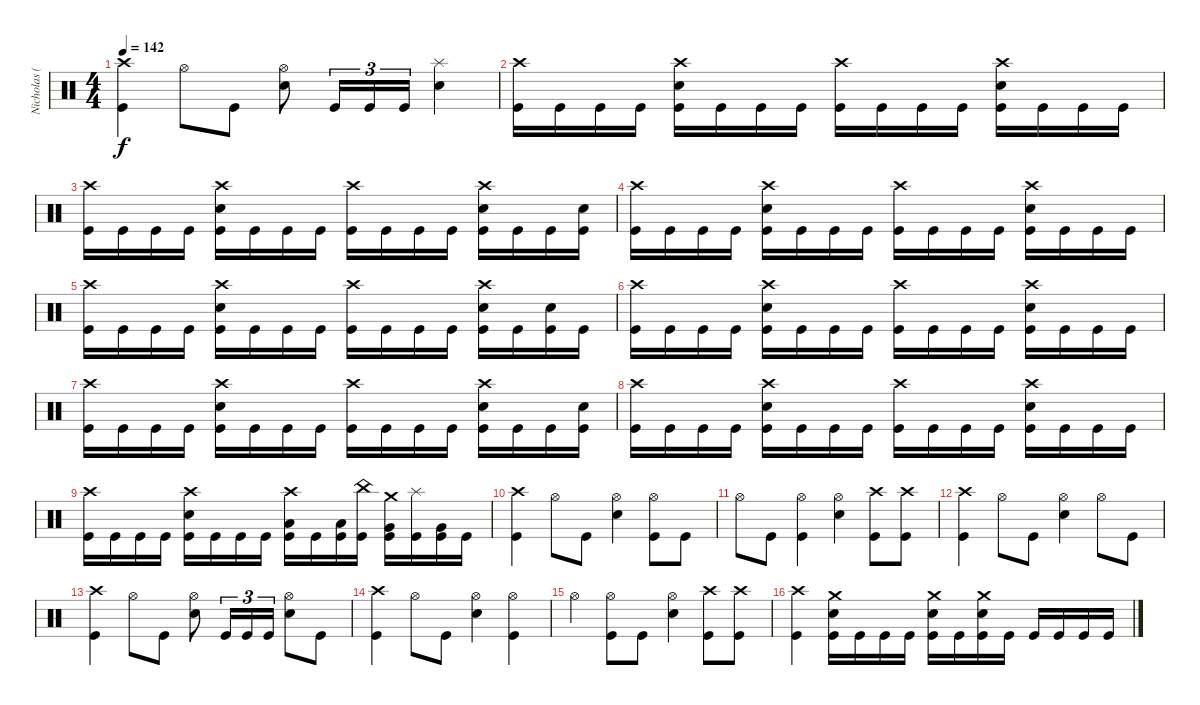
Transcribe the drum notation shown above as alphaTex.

\track ("Nicholas (Drums)" "Nicholas (") {instrument percussion}
\staff {score}
\articulation defaults
\ts (4 4)
\tempo 142
\clef neutral
\ks c
("Crash high (hit)" "Kick (hit)").4{dy f} "Hi-Hat (open)".8 "Kick (hit)".8 ("Hi-Hat (open)" "Electric Snare (hit)").8 "Kick (hit)".16{tu (3 2)} "Kick (hit)".16{tu (3 2)} "Kick (hit)".16{tu (3 2)} ("Splash (hit)" "Electric Snare (hit)").4 |
("Crash high (hit)" "Kick (hit)").16 "Kick (hit)".16 "Kick (hit)".16 "Kick (hit)".16 ("Crash high (hit)" "Electric Snare (hit)" "Kick (hit)").16 "Kick (hit)".16 "Kick (hit)".16 "Kick (hit)".16 ("Crash high (hit)" "Kick (hit)").16 "Kick (hit)".16 "Kick (hit)".16 "Kick (hit)".16 ("Crash high (hit)" "Electric Snare (hit)" "Kick (hit)").16 "Kick (hit)".16 "Kick (hit)".16 "Kick (hit)".16 |
("Crash high (hit)" "Kick (hit)").16 "Kick (hit)".16 "Kick (hit)".16 "Kick (hit)".16 ("Crash high (hit)" "Electric Snare (hit)" "Kick (hit)").16 "Kick (hit)".16 "Kick (hit)".16 "Kick (hit)".16 ("Crash high (hit)" "Kick (hit)").16 "Kick (hit)".16 "Kick (hit)".16 "Kick (hit)".16 ("Crash high (hit)" "Electric Snare (hit)" "Kick (hit)").16 "Kick (hit)".16 "Kick (hit)".16 ("Electric Snare (hit)" "Kick (hit)").16 |
("Crash high (hit)" "Kick (hit)").16 "Kick (hit)".16 "Kick (hit)".16 "Kick (hit)".16 ("Crash high (hit)" "Electric Snare (hit)" "Kick (hit)").16 "Kick (hit)".16 "Kick (hit)".16 "Kick (hit)".16 ("Crash high (hit)" "Kick (hit)").16 "Kick (hit)".16 "Kick (hit)".16 "Kick (hit)".16 ("Crash high (hit)" "Electric Snare (hit)" "Kick (hit)").16 "Kick (hit)".16 "Kick (hit)".16 "Kick (hit)".16 |
("Crash high (hit)" "Kick (hit)").16 "Kick (hit)".16 "Kick (hit)".16 "Kick (hit)".16 ("Crash high (hit)" "Electric Snare (hit)" "Kick (hit)").16 "Kick (hit)".16 "Kick (hit)".16 "Kick (hit)".16 ("Crash high (hit)" "Kick (hit)").16 "Kick (hit)".16 "Kick (hit)".16 "Kick (hit)".16 ("Crash high (hit)" "Electric Snare (hit)" "Kick (hit)").16 "Kick (hit)".16 ("Electric Snare (hit)" "Kick (hit)").16 "Kick (hit)".16 |
("Crash high (hit)" "Kick (hit)").16 "Kick (hit)".16 "Kick (hit)".16 "Kick (hit)".16 ("Crash high (hit)" "Electric Snare (hit)" "Kick (hit)").16 "Kick (hit)".16 "Kick (hit)".16 "Kick (hit)".16 ("Crash high (hit)" "Kick (hit)").16 "Kick (hit)".16 "Kick (hit)".16 "Kick (hit)".16 ("Crash high (hit)" "Electric Snare (hit)" "Kick (hit)").16 "Kick (hit)".16 "Kick (hit)".16 "Kick (hit)".16 |
("Crash high (hit)" "Kick (hit)").16 "Kick (hit)".16 "Kick (hit)".16 "Kick (hit)".16 ("Crash high (hit)" "Electric Snare (hit)" "Kick (hit)").16 "Kick (hit)".16 "Kick (hit)".16 "Kick (hit)".16 ("Crash high (hit)" "Kick (hit)").16 "Kick (hit)".16 "Kick (hit)".16 "Kick (hit)".16 ("Crash high (hit)" "Electric Snare (hit)" "Kick (hit)").16 "Kick (hit)".16 "Kick (hit)".16 ("Electric Snare (hit)" "Kick (hit)").16 |
("Crash high (hit)" "Kick (hit)").16 "Kick (hit)".16 "Kick (hit)".16 "Kick (hit)".16 ("Crash high (hit)" "Electric Snare (hit)" "Kick (hit)").16 "Kick (hit)".16 "Kick (hit)".16 "Kick (hit)".16 ("Crash high (hit)" "Kick (hit)").16 "Kick (hit)".16 "Kick (hit)".16 "Kick (hit)".16 ("Crash high (hit)" "Electric Snare (hit)" "Kick (hit)").16 "Kick (hit)".16 "Kick (hit)".16 "Kick (hit)".16 |
("Crash high (hit)" "Kick (hit)").16 "Kick (hit)".16 "Kick (hit)".16 "Kick (hit)".16 ("Crash high (hit)" "Electric Snare (hit)" "Kick (hit)").16 "Kick (hit)".16 "Kick (hit)".16 "Kick (hit)".16 ("Crash high (hit)" "Low Tom (hit)" "Kick (hit)").16 "Kick (hit)".16 ("Low Tom (hit)" "Kick (hit)").16 ("China (hit)" "Kick (hit)").16 ("Crash medium (hit)" "Very Low Tom (hit)" "Kick (hit)").16 ("Splash (hit)" "Kick (hit)").16 ("Very Low Tom (hit)" "Kick (hit)").16 "Kick (hit)".16 |
("Crash high (hit)" "Kick (hit)").4 "Hi-Hat (open)".8 "Kick (hit)".8 ("Hi-Hat (open)" "Electric Snare (hit)").4 ("Hi-Hat (open)" "Kick (hit)").8 "Kick (hit)".8 |
"Hi-Hat (open)".8 "Kick (hit)".8 ("Hi-Hat (open)" "Kick (hit)").4 ("Hi-Hat (open)" "Electric Snare (hit)").4 ("Crash high (hit)" "Kick (hit)").8 ("Crash high (hit)" "Kick (hit)").8 |
("Crash high (hit)" "Kick (hit)").4 "Hi-Hat (open)".8 "Kick (hit)".8 ("Hi-Hat (open)" "Electric Snare (hit)").4 "Hi-Hat (open)".8 "Kick (hit)".8 |
("Crash high (hit)" "Kick (hit)").4 "Hi-Hat (open)".8 "Kick (hit)".8 ("Hi-Hat (open)" "Electric Snare (hit)").8 "Kick (hit)".16{tu (3 2)} "Kick (hit)".16{tu (3 2)} "Kick (hit)".16{tu (3 2)} ("Hi-Hat (open)" "Electric Snare (hit)").8 "Kick (hit)".8 |
("Crash high (hit)" "Kick (hit)").4 "Hi-Hat (open)".8 "Kick (hit)".8 ("Hi-Hat (open)" "Electric Snare (hit)").4 ("Hi-Hat (open)" "Kick (hit)").4 |
"Hi-Hat (open)".4 ("Hi-Hat (open)" "Kick (hit)").8 "Kick (hit)".8 ("Hi-Hat (open)" "Electric Snare (hit)").4 ("Crash high (hit)" "Kick (hit)").8 ("Crash high (hit)" "Kick (hit)").8 |
("Crash high (hit)" "Kick (hit)").4 ("Crash medium (hit)" "Electric Snare (hit)" "Kick (hit)").16 "Kick (hit)".16 "Kick (hit)".16 "Kick (hit)".16 ("Crash medium (hit)" "Electric Snare (hit)" "Kick (hit)").16 "Kick (hit)".16 ("Crash medium (hit)" "Electric Snare (hit)" "Kick (hit)").16 "Kick (hit)".16 "Kick (hit)".16 "Kick (hit)".16 "Kick (hit)".16 "Kick (hit)".16
